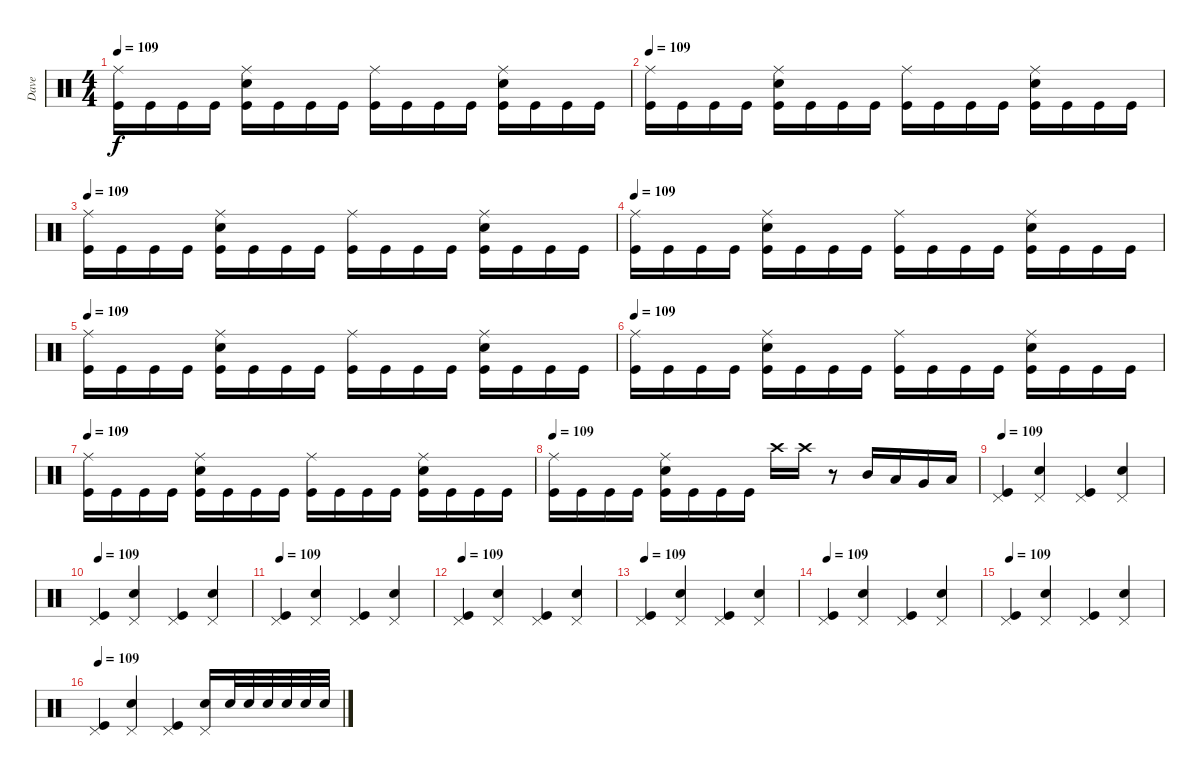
\track ("Dave" "Dave") {instrument percussion}
\staff {score}
\articulation defaults
\ts (4 4)
\tempo 109
\clef neutral
\ks c
("Ride (middle)" "Kick (hit)").16{dy f} "Kick (hit)".16 "Kick (hit)".16 "Kick (hit)".16 ("Ride (middle)" "Snare (hit) 2" "Kick (hit)").16 "Kick (hit)".16 "Kick (hit)".16 "Kick (hit)".16 ("Ride (middle)" "Kick (hit)").16 "Kick (hit)".16 "Kick (hit)".16 "Kick (hit)".16 ("Ride (middle)" "Snare (hit) 2" "Kick (hit)").16 "Kick (hit)".16 "Kick (hit)".16 "Kick (hit)".16 |
\tempo 109
("Ride (middle)" "Kick (hit)").16 "Kick (hit)".16 "Kick (hit)".16 "Kick (hit)".16 ("Ride (middle)" "Snare (hit) 2" "Kick (hit)").16 "Kick (hit)".16 "Kick (hit)".16 "Kick (hit)".16 ("Ride (middle)" "Kick (hit)").16 "Kick (hit)".16 "Kick (hit)".16 "Kick (hit)".16 ("Ride (middle)" "Snare (hit) 2" "Kick (hit)").16 "Kick (hit)".16 "Kick (hit)".16 "Kick (hit)".16 |
\tempo 109
("Ride (middle)" "Kick (hit)").16 "Kick (hit)".16 "Kick (hit)".16 "Kick (hit)".16 ("Ride (middle)" "Snare (hit) 2" "Kick (hit)").16 "Kick (hit)".16 "Kick (hit)".16 "Kick (hit)".16 ("Ride (middle)" "Kick (hit)").16 "Kick (hit)".16 "Kick (hit)".16 "Kick (hit)".16 ("Ride (middle)" "Snare (hit) 2" "Kick (hit)").16 "Kick (hit)".16 "Kick (hit)".16 "Kick (hit)".16 |
\tempo 109
("Ride (middle)" "Kick (hit)").16 "Kick (hit)".16 "Kick (hit)".16 "Kick (hit)".16 ("Ride (middle)" "Snare (hit) 2" "Kick (hit)").16 "Kick (hit)".16 "Kick (hit)".16 "Kick (hit)".16 ("Ride (middle)" "Kick (hit)").16 "Kick (hit)".16 "Kick (hit)".16 "Kick (hit)".16 ("Ride (middle)" "Snare (hit) 2" "Kick (hit)").16 "Kick (hit)".16 "Kick (hit)".16 "Kick (hit)".16 |
\tempo 109
("Ride (middle)" "Kick (hit)").16 "Kick (hit)".16 "Kick (hit)".16 "Kick (hit)".16 ("Ride (middle)" "Snare (hit) 2" "Kick (hit)").16 "Kick (hit)".16 "Kick (hit)".16 "Kick (hit)".16 ("Ride (middle)" "Kick (hit)").16 "Kick (hit)".16 "Kick (hit)".16 "Kick (hit)".16 ("Ride (middle)" "Snare (hit) 2" "Kick (hit)").16 "Kick (hit)".16 "Kick (hit)".16 "Kick (hit)".16 |
\tempo 109
("Ride (middle)" "Kick (hit)").16 "Kick (hit)".16 "Kick (hit)".16 "Kick (hit)".16 ("Ride (middle)" "Snare (hit) 2" "Kick (hit)").16 "Kick (hit)".16 "Kick (hit)".16 "Kick (hit)".16 ("Ride (middle)" "Kick (hit)").16 "Kick (hit)".16 "Kick (hit)".16 "Kick (hit)".16 ("Ride (middle)" "Snare (hit) 2" "Kick (hit)").16 "Kick (hit)".16 "Kick (hit)".16 "Kick (hit)".16 |
\tempo 109
("Ride (middle)" "Kick (hit)").16 "Kick (hit)".16 "Kick (hit)".16 "Kick (hit)".16 ("Ride (middle)" "Snare (hit) 2" "Kick (hit)").16 "Kick (hit)".16 "Kick (hit)".16 "Kick (hit)".16 ("Ride (middle)" "Kick (hit)").16 "Kick (hit)".16 "Kick (hit)".16 "Kick (hit)".16 ("Ride (middle)" "Snare (hit) 2" "Kick (hit)").16 "Kick (hit)".16 "Kick (hit)".16 "Kick (hit)".16 |
\tempo 109
("Ride (middle)" "Kick (hit)").16 "Kick (hit)".16 "Kick (hit)".16 "Kick (hit)".16 ("Ride (middle)" "Snare (hit) 2" "Kick (hit)").16 "Kick (hit)".16 "Kick (hit)".16 "Kick (hit)".16 "Crash high (hit)".16 "Crash high (hit)".16 r.8 "Mid Tom (hit)".16 "Low Tom (hit)".16 "Very Low Tom (hit)".16 "Low Floor Tom (hit)".16 |
\tempo 109
("Pedal Hi-Hat (hit)" "Kick (hit)").4 ("Pedal Hi-Hat (hit)" "Snare (hit) 2").4 ("Pedal Hi-Hat (hit)" "Kick (hit)").4 ("Pedal Hi-Hat (hit)" "Snare (hit) 2").4 |
\tempo 109
("Pedal Hi-Hat (hit)" "Kick (hit)").4 ("Pedal Hi-Hat (hit)" "Snare (hit) 2").4 ("Pedal Hi-Hat (hit)" "Kick (hit)").4 ("Pedal Hi-Hat (hit)" "Snare (hit) 2").4 |
\tempo 109
("Pedal Hi-Hat (hit)" "Kick (hit)").4 ("Pedal Hi-Hat (hit)" "Snare (hit) 2").4 ("Pedal Hi-Hat (hit)" "Kick (hit)").4 ("Pedal Hi-Hat (hit)" "Snare (hit) 2").4 |
\tempo 109
("Pedal Hi-Hat (hit)" "Kick (hit)").4 ("Pedal Hi-Hat (hit)" "Snare (hit) 2").4 ("Pedal Hi-Hat (hit)" "Kick (hit)").4 ("Pedal Hi-Hat (hit)" "Snare (hit) 2").4 |
\tempo 109
("Pedal Hi-Hat (hit)" "Kick (hit)").4 ("Pedal Hi-Hat (hit)" "Snare (hit) 2").4 ("Pedal Hi-Hat (hit)" "Kick (hit)").4 ("Pedal Hi-Hat (hit)" "Snare (hit) 2").4 |
\tempo 109
("Pedal Hi-Hat (hit)" "Kick (hit)").4 ("Pedal Hi-Hat (hit)" "Snare (hit) 2").4 ("Pedal Hi-Hat (hit)" "Kick (hit)").4 ("Pedal Hi-Hat (hit)" "Snare (hit) 2").4 |
\tempo 109
("Pedal Hi-Hat (hit)" "Kick (hit)").4 ("Pedal Hi-Hat (hit)" "Snare (hit) 2").4 ("Pedal Hi-Hat (hit)" "Kick (hit)").4 ("Pedal Hi-Hat (hit)" "Snare (hit) 2").4 |
\tempo 109
("Pedal Hi-Hat (hit)" "Kick (hit)").4 ("Pedal Hi-Hat (hit)" "Snare (hit) 2").4 ("Pedal Hi-Hat (hit)" "Kick (hit)").4 ("Pedal Hi-Hat (hit)" "Snare (hit) 2").16 "Snare (hit) 2".32 "Snare (hit) 2".32 "Snare (hit) 2".32 "Snare (hit) 2".32 "Snare (hit) 2".32 "Snare (hit) 2".32
